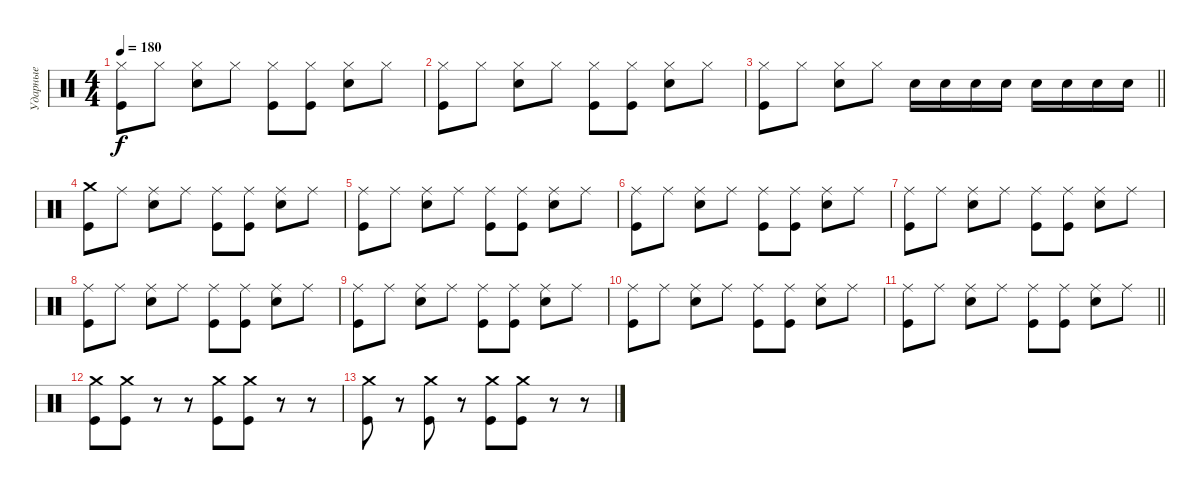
\track ("Ударные" "Ударные") {instrument percussion}
\staff {score}
\articulation defaults
\ts (4 4)
\tempo 180
\clef neutral
\ks c
("Hi-Hat (closed)" "Kick (hit)").8{dy f} "Hi-Hat (closed)".8 ("Hi-Hat (closed)" "Electric Snare (hit)").8 "Hi-Hat (closed)".8 ("Hi-Hat (closed)" "Kick (hit)").8 ("Hi-Hat (closed)" "Kick (hit)").8 ("Hi-Hat (closed)" "Electric Snare (hit)").8 "Hi-Hat (closed)".8 |
("Hi-Hat (closed)" "Kick (hit)").8 "Hi-Hat (closed)".8 ("Hi-Hat (closed)" "Electric Snare (hit)").8 "Hi-Hat (closed)".8 ("Hi-Hat (closed)" "Kick (hit)").8 ("Hi-Hat (closed)" "Kick (hit)").8 ("Hi-Hat (closed)" "Electric Snare (hit)").8 "Hi-Hat (closed)".8 |
\barLineRight lightlight
("Hi-Hat (closed)" "Kick (hit)").8 "Hi-Hat (closed)".8 ("Hi-Hat (closed)" "Electric Snare (hit)").8 "Hi-Hat (closed)".8 "Electric Snare (hit)".16 "Electric Snare (hit)".16 "Electric Snare (hit)".16 "Electric Snare (hit)".16 "Electric Snare (hit)".16 "Electric Snare (hit)".16 "Electric Snare (hit)".16 "Electric Snare (hit)".16 |
("Crash medium (hit)" "Kick (hit)").8 "Ride (middle)".8 ("Ride (middle)" "Electric Snare (hit)").8 "Ride (middle)".8 ("Ride (middle)" "Kick (hit)").8 ("Ride (middle)" "Kick (hit)").8 ("Ride (middle)" "Electric Snare (hit)").8 "Ride (middle)".8 |
("Ride (middle)" "Kick (hit)").8 "Ride (middle)".8 ("Ride (middle)" "Electric Snare (hit)").8 "Ride (middle)".8 ("Ride (middle)" "Kick (hit)").8 ("Ride (middle)" "Kick (hit)").8 ("Ride (middle)" "Electric Snare (hit)").8 "Ride (middle)".8 |
("Ride (middle)" "Kick (hit)").8 "Ride (middle)".8 ("Ride (middle)" "Electric Snare (hit)").8 "Ride (middle)".8 ("Ride (middle)" "Kick (hit)").8 ("Ride (middle)" "Kick (hit)").8 ("Ride (middle)" "Electric Snare (hit)").8 "Ride (middle)".8 |
("Ride (middle)" "Kick (hit)").8 "Ride (middle)".8 ("Ride (middle)" "Electric Snare (hit)").8 "Ride (middle)".8 ("Ride (middle)" "Kick (hit)").8 ("Ride (middle)" "Kick (hit)").8 ("Ride (middle)" "Electric Snare (hit)").8 "Ride (middle)".8 |
("Ride (middle)" "Kick (hit)").8 "Ride (middle)".8 ("Ride (middle)" "Electric Snare (hit)").8 "Ride (middle)".8 ("Ride (middle)" "Kick (hit)").8 ("Ride (middle)" "Kick (hit)").8 ("Ride (middle)" "Electric Snare (hit)").8 "Ride (middle)".8 |
("Ride (middle)" "Kick (hit)").8 "Ride (middle)".8 ("Ride (middle)" "Electric Snare (hit)").8 "Ride (middle)".8 ("Ride (middle)" "Kick (hit)").8 ("Ride (middle)" "Kick (hit)").8 ("Ride (middle)" "Electric Snare (hit)").8 "Ride (middle)".8 |
("Ride (middle)" "Kick (hit)").8 "Ride (middle)".8 ("Ride (middle)" "Electric Snare (hit)").8 "Ride (middle)".8 ("Ride (middle)" "Kick (hit)").8 ("Ride (middle)" "Kick (hit)").8 ("Ride (middle)" "Electric Snare (hit)").8 "Ride (middle)".8 |
\barLineRight lightlight
("Ride (middle)" "Kick (hit)").8 "Ride (middle)".8 ("Ride (middle)" "Electric Snare (hit)").8 "Ride (middle)".8 ("Ride (middle)" "Kick (hit)").8 ("Ride (middle)" "Kick (hit)").8 ("Ride (middle)" "Electric Snare (hit)").8 "Ride (middle)".8 |
("Crash medium (hit)" "Kick (hit)").8 ("Crash medium (hit)" "Kick (hit)").8 r.8 r.8 ("Crash medium (hit)" "Kick (hit)").8 ("Crash medium (hit)" "Kick (hit)").8 r.8 r.8 |
("Crash medium (hit)" "Kick (hit)").8 r.8 ("Crash medium (hit)" "Kick (hit)").8 r.8 ("Crash medium (hit)" "Kick (hit)").8 ("Crash medium (hit)" "Kick (hit)").8 r.8 r.8
